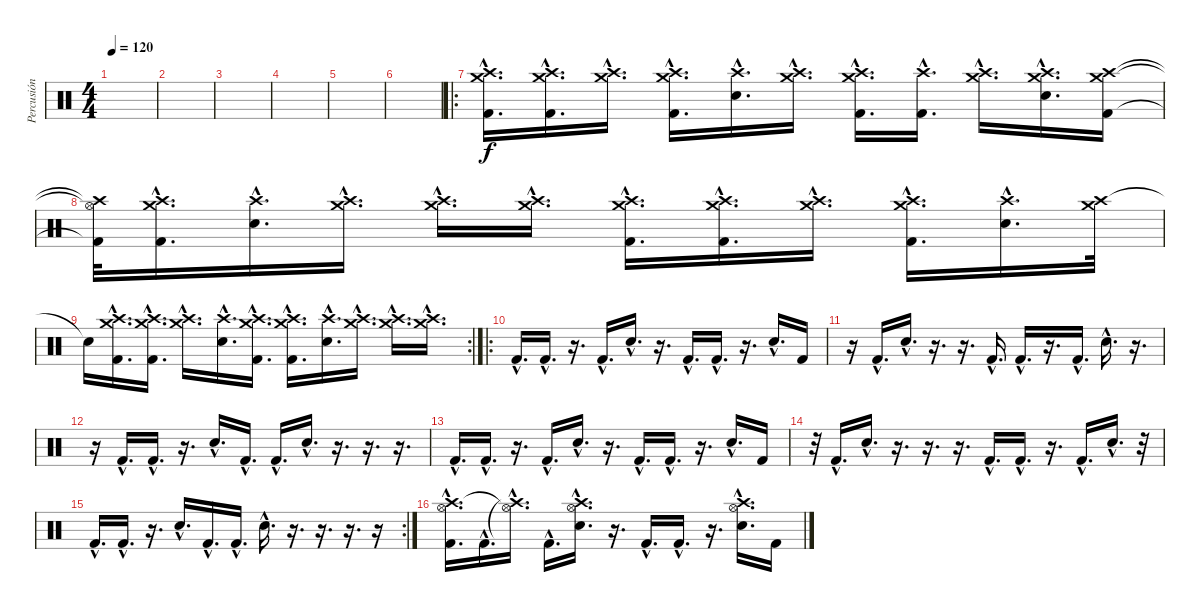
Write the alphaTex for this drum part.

\track ("Percusión" "Percusión") {instrument percussion}
\staff {score}
\articulation defaults
\ts (4 4)
\tempo 120
\clef neutral
\ks c
|
|
|
|
|
|
\ro
("Kick (hit) 2"{hac} "Crash high (hit)"{hac} "Crash medium (hit)"{hac}).16{d} ("Kick (hit) 2"{hac} "Crash high (hit)"{hac} "Crash medium (hit)"{hac}).16{d} ("Crash high (hit)"{hac} "Crash medium (hit)"{hac}).16{d} ("Kick (hit) 2"{hac} "Crash high (hit)"{hac} "Crash medium (hit)"{hac}).16{d} ("Electric Snare (hit)"{hac} "Crash high (hit)"{hac}).16{d} ("Crash medium (hit)"{hac} "Crash high (hit)"{hac}).16{d} ("Kick (hit) 2"{hac} "Crash high (hit)"{hac} "Crash medium (hit)"{hac}).16{d} ("Kick (hit) 2"{hac} "Crash high (hit)"{hac}).16{d} ("Crash high (hit)"{hac} "Crash medium (hit)"{hac}).16{d} ("Electric Snare (hit)"{hac} "Crash high (hit)"{hac} "Crash medium (hit)"{hac}).16{d} ("Kick (hit) 2" "Crash high (hit)" "Crash medium (hit)").16 |
("Kick (hit) 2"{t} "Crash high (hit)"{t} "Hi-Hat (open)"{t}).32 ("Kick (hit) 2"{hac} "Crash high (hit)"{hac} "Crash medium (hit)"{hac}).16{d} ("Electric Snare (hit)"{hac} "Crash high (hit)"{hac}).16{d} ("Crash high (hit)"{hac} "Crash medium (hit)"{hac}).16{d} ("Crash high (hit)"{hac} "Crash medium (hit)"{hac}).16{d} ("Crash high (hit)"{hac} "Crash medium (hit)"{hac}).16{d} ("Kick (hit) 2"{hac} "Crash high (hit)"{hac} "Crash medium (hit)"{hac}).16{d} ("Kick (hit) 2"{hac} "Crash high (hit)"{hac} "Crash medium (hit)"{hac}).16{d} ("Crash high (hit)"{hac} "Crash medium (hit)"{hac}).16{d} ("Kick (hit) 2"{hac} "Crash high (hit)"{hac} "Crash medium (hit)"{hac}).16{d} ("Electric Snare (hit)"{hac} "Crash high (hit)"{hac}).16{d} ("Crash high (hit)" "Crash medium (hit)").32 |
\rc 2 "Snare (hit)"{t}.16
("Kick (hit) 2"{hac} "Crash high (hit)"{hac} "Crash medium (hit)"{hac}).16{d} ("Kick (hit) 2"{hac} "Crash high (hit)"{hac} "Crash medium (hit)"{hac}).16{d} ("Crash high (hit)"{hac} "Crash medium (hit)"{hac}).16{d} ("Electric Snare (hit)"{hac} "Crash high (hit)"{hac}).16{d} ("Kick (hit) 2"{hac} "Crash high (hit)"{hac} "Crash medium (hit)"{hac}).16{d} ("Kick (hit) 2"{hac} "Crash high (hit)"{hac} "Crash medium (hit)"{hac}).16{d} ("Electric Snare (hit)"{hac} "Crash high (hit)"{hac}).16{d} ("Crash high (hit)"{hac} "Crash medium (hit)"{hac}).16{d} ("Crash high (hit)"{hac} "Crash medium (hit)"{hac}).16{d} ("Crash high (hit)"{hac} "Crash medium (hit)"{hac}).16{d} |
\ro
\section ("" "")
"Kick (hit) 2"{hac}.16{d} "Kick (hit) 2"{hac}.16{d} r.16{d} "Kick (hit) 2"{hac}.16{d} "Electric Snare (hit)"{hac}.16{d} r.16{d} "Kick (hit) 2"{hac}.16{d} "Kick (hit) 2"{hac}.16{d} r.16{d} "Electric Snare (hit)"{hac}.16{d} "Kick (hit) 2".16 |
r.16 "Kick (hit) 2"{hac}.16{d} "Electric Snare (hit)"{hac}.16{d} r.16{d} r.16{d} "Kick (hit) 2"{hac}.16{d} "Kick (hit) 2"{hac}.16{d} r.16{d} "Kick (hit) 2"{hac}.16{d} "Electric Snare (hit)"{hac}.16{d} r.16{d} |
r.16 "Kick (hit) 2"{hac}.16{d} "Kick (hit) 2"{hac}.16{d} r.16{d} "Electric Snare (hit)"{hac}.16{d} "Kick (hit) 2"{hac}.16{d} "Kick (hit) 2"{hac}.16{d} "Electric Snare (hit)"{hac}.16{d} r.16{d} r.16{d} r.16{d} |
"Kick (hit) 2"{hac}.16{d} "Kick (hit) 2"{hac}.16{d} r.16{d} "Kick (hit) 2"{hac}.16{d} "Electric Snare (hit)"{hac}.16{d} r.16{d} "Kick (hit) 2"{hac}.16{d} "Kick (hit) 2"{hac}.16{d} r.16{d} "Electric Snare (hit)"{hac}.16{d} "Kick (hit) 2".16 |
r.32 "Kick (hit) 2"{hac}.16{d} "Electric Snare (hit)"{hac}.16{d} r.16{d} r.16{d} r.16{d} "Kick (hit) 2"{hac}.16{d} "Kick (hit) 2"{hac}.16{d} r.16{d} "Kick (hit) 2"{hac}.16{d} "Electric Snare (hit)"{hac}.16{d} r.32 |
\rc 2 "Kick (hit) 2"{hac}.16{d} "Kick (hit) 2"{hac}.16{d}
r.16{d} "Electric Snare (hit)"{hac}.16{d} "Kick (hit) 2"{hac}.16{d} "Kick (hit) 2"{hac}.16{d} "Electric Snare (hit)"{hac}.16{d} r.16{d} r.16{d} r.16{d} r.16 |
("Kick (hit) 2"{hac} "Crash high (hit)"{hac} "Hi-Hat (open)"{hac}).16{d} "Kick (hit) 2"{hac}.16{d} ("Crash high (hit)"{hac t} "Hi-Hat (open)"{hac t}).16{d} "Kick (hit) 2"{hac}.16{d} ("Electric Snare (hit)"{hac} "Hi-Hat (open)"{hac} "Crash high (hit)"{hac}).16{d} r.16{d} "Kick (hit) 2"{hac}.16{d} "Kick (hit) 2"{hac}.16{d} r.16{d} ("Electric Snare (hit)"{hac} "Hi-Hat (open)"{hac} "Crash high (hit)"{hac}).16{d} "Kick (hit) 2".16
